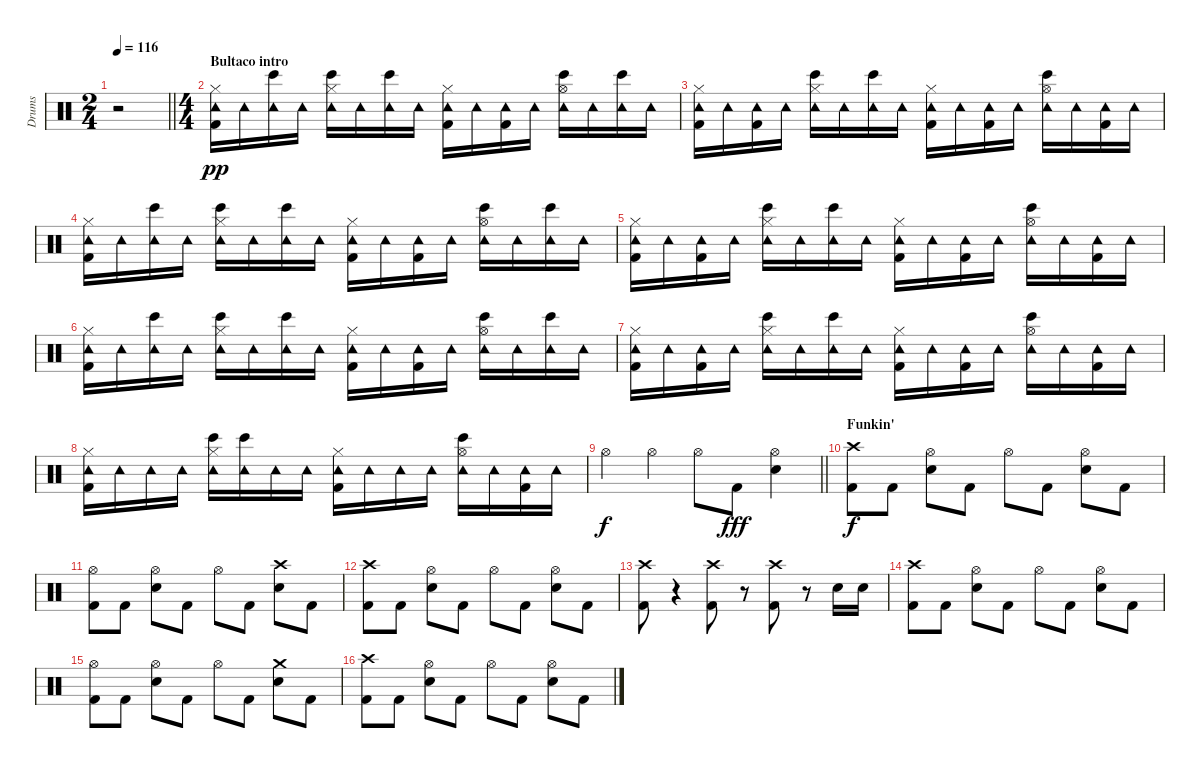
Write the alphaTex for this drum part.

\track ("Drums" "Drums") {instrument percussion}
\staff {score}
\articulation defaults
\ts (2 4)
\tempo 116
\clef neutral
\barLineRight lightlight
\ks c
r.2{dy pp} |
\ts (4 4)
\section ("" "Bultaco intro")
("Hi-Hat (closed)" "Kick (hit) 2" "Tambourine (hit)").16{volume 10} "Tambourine (hit)".16 ("Bongo High (hit)" "Tambourine (hit)").16 "Tambourine (hit)".16 ("Hi-Hat (closed)" "Bongo High (hit)" "Tambourine (hit)").16 "Tambourine (hit)".16 ("Bongo High (hit)" "Tambourine (hit)").16 "Tambourine (hit)".16 ("Hi-Hat (closed)" "Kick (hit) 2" "Tambourine (hit)").16 "Tambourine (hit)".16 ("Kick (hit) 2" "Tambourine (hit)").16 "Tambourine (hit)".16 ("Hi-Hat (open)" "Bongo High (hit)" "Tambourine (hit)").16 "Tambourine (hit)".16 ("Bongo High (hit)" "Tambourine (hit)").16 "Tambourine (hit)".16 |
("Hi-Hat (closed)" "Kick (hit) 2" "Tambourine (hit)").16 "Tambourine (hit)".16 ("Kick (hit) 2" "Tambourine (hit)").16 "Tambourine (hit)".16 ("Hi-Hat (closed)" "Bongo High (hit)" "Tambourine (hit)").16 "Tambourine (hit)".16 ("Bongo High (hit)" "Tambourine (hit)").16 "Tambourine (hit)".16 ("Hi-Hat (closed)" "Kick (hit) 2" "Tambourine (hit)").16 "Tambourine (hit)".16 ("Kick (hit) 2" "Tambourine (hit)").16 "Tambourine (hit)".16 ("Hi-Hat (open)" "Bongo High (hit)" "Tambourine (hit)").16 "Tambourine (hit)".16 ("Kick (hit) 2" "Tambourine (hit)").16 "Tambourine (hit)".16 |
("Hi-Hat (closed)" "Kick (hit) 2" "Tambourine (hit)").16 "Tambourine (hit)".16 ("Bongo High (hit)" "Tambourine (hit)").16 "Tambourine (hit)".16 ("Hi-Hat (closed)" "Bongo High (hit)" "Tambourine (hit)").16 "Tambourine (hit)".16 ("Bongo High (hit)" "Tambourine (hit)").16 "Tambourine (hit)".16 ("Hi-Hat (closed)" "Kick (hit) 2" "Tambourine (hit)").16 "Tambourine (hit)".16 ("Kick (hit) 2" "Tambourine (hit)").16 "Tambourine (hit)".16 ("Hi-Hat (open)" "Bongo High (hit)" "Tambourine (hit)").16 "Tambourine (hit)".16 ("Bongo High (hit)" "Tambourine (hit)").16 "Tambourine (hit)".16 |
("Hi-Hat (closed)" "Kick (hit) 2" "Tambourine (hit)").16 "Tambourine (hit)".16 ("Kick (hit) 2" "Tambourine (hit)").16 "Tambourine (hit)".16 ("Hi-Hat (closed)" "Bongo High (hit)" "Tambourine (hit)").16 "Tambourine (hit)".16 ("Bongo High (hit)" "Tambourine (hit)").16 "Tambourine (hit)".16 ("Hi-Hat (closed)" "Kick (hit) 2" "Tambourine (hit)").16 "Tambourine (hit)".16 ("Kick (hit) 2" "Tambourine (hit)").16 "Tambourine (hit)".16 ("Hi-Hat (open)" "Bongo High (hit)" "Tambourine (hit)").16 "Tambourine (hit)".16 ("Kick (hit) 2" "Tambourine (hit)").16 "Tambourine (hit)".16 |
("Hi-Hat (closed)" "Kick (hit) 2" "Tambourine (hit)").16{volume 10} "Tambourine (hit)".16 ("Bongo High (hit)" "Tambourine (hit)").16 "Tambourine (hit)".16 ("Hi-Hat (closed)" "Bongo High (hit)" "Tambourine (hit)").16 "Tambourine (hit)".16 ("Bongo High (hit)" "Tambourine (hit)").16 "Tambourine (hit)".16 ("Hi-Hat (closed)" "Kick (hit) 2" "Tambourine (hit)").16 "Tambourine (hit)".16 ("Kick (hit) 2" "Tambourine (hit)").16 "Tambourine (hit)".16 ("Hi-Hat (open)" "Bongo High (hit)" "Tambourine (hit)").16 "Tambourine (hit)".16 ("Bongo High (hit)" "Tambourine (hit)").16 "Tambourine (hit)".16 |
("Hi-Hat (closed)" "Kick (hit) 2" "Tambourine (hit)").16 "Tambourine (hit)".16 ("Kick (hit) 2" "Tambourine (hit)").16 "Tambourine (hit)".16 ("Hi-Hat (closed)" "Bongo High (hit)" "Tambourine (hit)").16 "Tambourine (hit)".16 ("Bongo High (hit)" "Tambourine (hit)").16 "Tambourine (hit)".16 ("Hi-Hat (closed)" "Kick (hit) 2" "Tambourine (hit)").16 "Tambourine (hit)".16 ("Kick (hit) 2" "Tambourine (hit)").16 "Tambourine (hit)".16 ("Hi-Hat (open)" "Bongo High (hit)" "Tambourine (hit)").16 "Tambourine (hit)".16 ("Kick (hit) 2" "Tambourine (hit)").16 "Tambourine (hit)".16 |
("Hi-Hat (closed)" "Kick (hit) 2" "Tambourine (hit)").16 "Tambourine (hit)".16 "Tambourine (hit)".16 "Tambourine (hit)".16 ("Hi-Hat (closed)" "Bongo High (hit)" "Tambourine (hit)").16 ("Bongo High (hit)" "Tambourine (hit)").16 "Tambourine (hit)".16 "Tambourine (hit)".16 ("Hi-Hat (closed)" "Kick (hit) 2" "Tambourine (hit)").16 "Tambourine (hit)".16 "Tambourine (hit)".16 "Tambourine (hit)".16 ("Hi-Hat (open)" "Bongo High (hit)" "Tambourine (hit)").16 "Tambourine (hit)".16 ("Kick (hit) 2" "Tambourine (hit)").16 "Tambourine (hit)".16 |
\barLineRight lightlight "Hi-Hat (open)".4{dy f volume 13} "Hi-Hat (open)".4 "Hi-Hat (open)".8 "Kick (hit) 2".8{dy fff}
("Electric Snare (hit)" "Hi-Hat (open)").4 |
\section ("" "Funkin'")
("Crash high (hit)" "Kick (hit) 2").8{dy f} "Kick (hit) 2".8 ("Hi-Hat (open)" "Electric Snare (hit)").8 "Kick (hit) 2".8 "Hi-Hat (open)".8 "Kick (hit) 2".8 ("Hi-Hat (open)" "Electric Snare (hit)").8 "Kick (hit) 2".8 |
("Hi-Hat (open)" "Kick (hit) 2").8 "Kick (hit) 2".8 ("Hi-Hat (open)" "Electric Snare (hit)").8 "Kick (hit) 2".8 "Hi-Hat (open)".8 "Kick (hit) 2".8 ("Crash high (hit)" "Electric Snare (hit)").8 "Kick (hit) 2".8 |
("Crash high (hit)" "Kick (hit) 2").8 "Kick (hit) 2".8 ("Hi-Hat (open)" "Electric Snare (hit)").8 "Kick (hit) 2".8 "Hi-Hat (open)".8 "Kick (hit) 2".8 ("Hi-Hat (open)" "Electric Snare (hit)").8 "Kick (hit) 2".8 |
("Crash high (hit)" "Kick (hit) 2").8 r.4 ("Crash high (hit)" "Kick (hit) 2").8 r.8 ("Crash high (hit)" "Kick (hit) 2").8 r.8 "Electric Snare (hit)".16 "Electric Snare (hit)".16 |
("Crash high (hit)" "Kick (hit) 2").8 "Kick (hit) 2".8 ("Hi-Hat (open)" "Electric Snare (hit)").8 "Kick (hit) 2".8 "Hi-Hat (open)".8 "Kick (hit) 2".8 ("Hi-Hat (open)" "Electric Snare (hit)").8 "Kick (hit) 2".8 |
("Hi-Hat (open)" "Kick (hit) 2").8 "Kick (hit) 2".8 ("Hi-Hat (open)" "Electric Snare (hit)").8 "Kick (hit) 2".8 "Hi-Hat (open)".8 "Kick (hit) 2".8 ("Crash medium (hit)" "Electric Snare (hit)").8 "Kick (hit) 2".8 |
("Crash high (hit)" "Kick (hit) 2").8 "Kick (hit) 2".8 ("Hi-Hat (open)" "Electric Snare (hit)").8 "Kick (hit) 2".8 "Hi-Hat (open)".8 "Kick (hit) 2".8 ("Hi-Hat (open)" "Electric Snare (hit)").8 "Kick (hit) 2".8
